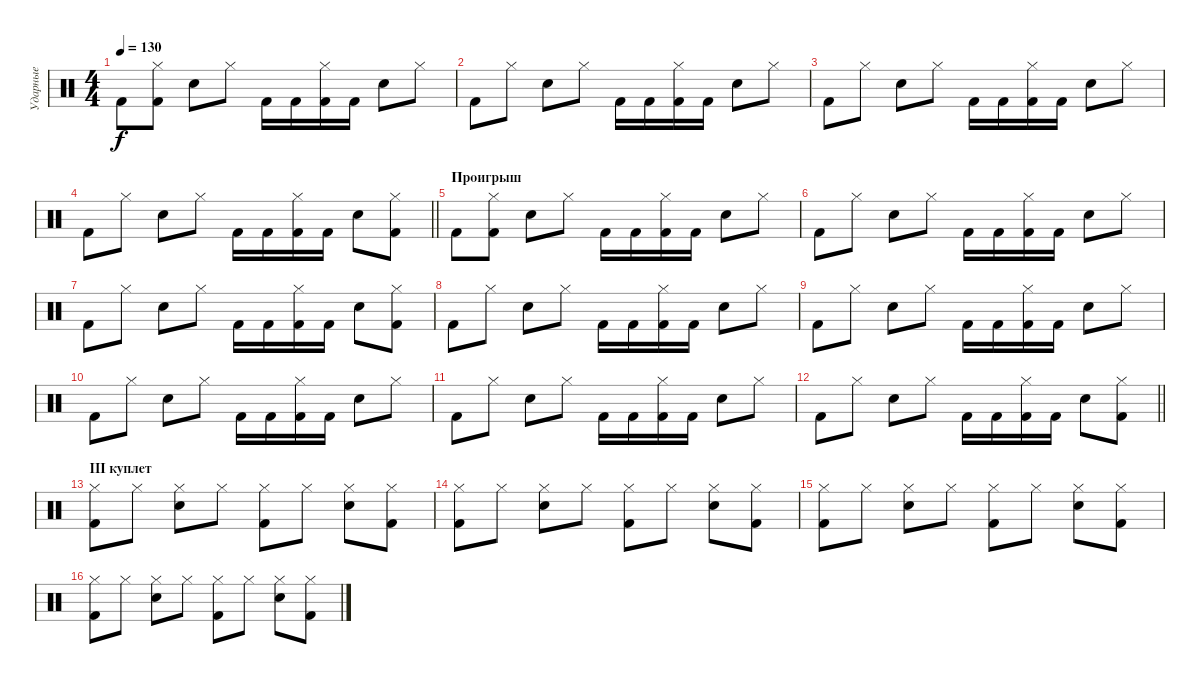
\track ("Ударные" "Ударные") {instrument percussion}
\staff {score}
\articulation defaults
\ts (4 4)
\tempo 130
\clef neutral
\ks c "Kick (hit) 2".8{dy f}
("Hi-Hat (closed)" "Kick (hit) 2").8 "Electric Snare (hit)".8 "Hi-Hat (closed)".8 "Kick (hit) 2".16 "Kick (hit) 2".16 ("Hi-Hat (closed)" "Kick (hit) 2").16 "Kick (hit) 2".16 "Electric Snare (hit)".8 "Hi-Hat (closed)".8 |
"Kick (hit) 2".8 "Hi-Hat (closed)".8 "Electric Snare (hit)".8 "Hi-Hat (closed)".8 "Kick (hit) 2".16 "Kick (hit) 2".16 ("Hi-Hat (closed)" "Kick (hit) 2").16 "Kick (hit) 2".16 "Electric Snare (hit)".8 "Hi-Hat (closed)".8 |
"Kick (hit) 2".8 "Hi-Hat (closed)".8 "Electric Snare (hit)".8 "Hi-Hat (closed)".8 "Kick (hit) 2".16 "Kick (hit) 2".16 ("Hi-Hat (closed)" "Kick (hit) 2").16 "Kick (hit) 2".16 "Electric Snare (hit)".8 "Hi-Hat (closed)".8 |
\barLineRight lightlight "Kick (hit) 2".8 "Hi-Hat (closed)".8 "Electric Snare (hit)".8 "Hi-Hat (closed)".8 "Kick (hit) 2".16 "Kick (hit) 2".16
("Hi-Hat (closed)" "Kick (hit) 2").16 "Kick (hit) 2".16 "Electric Snare (hit)".8 ("Hi-Hat (closed)" "Kick (hit) 2").8 |
\section ("" "Проигрыш")
"Kick (hit) 2".8 ("Hi-Hat (closed)" "Kick (hit) 2").8 "Electric Snare (hit)".8 "Hi-Hat (closed)".8 "Kick (hit) 2".16 "Kick (hit) 2".16 ("Hi-Hat (closed)" "Kick (hit) 2").16 "Kick (hit) 2".16 "Electric Snare (hit)".8 "Hi-Hat (closed)".8 |
"Kick (hit) 2".8 "Hi-Hat (closed)".8 "Electric Snare (hit)".8 "Hi-Hat (closed)".8 "Kick (hit) 2".16 "Kick (hit) 2".16 ("Hi-Hat (closed)" "Kick (hit) 2").16 "Kick (hit) 2".16 "Electric Snare (hit)".8 "Hi-Hat (closed)".8 |
"Kick (hit) 2".8 "Hi-Hat (closed)".8 "Electric Snare (hit)".8 "Hi-Hat (closed)".8 "Kick (hit) 2".16 "Kick (hit) 2".16 ("Hi-Hat (closed)" "Kick (hit) 2").16 "Kick (hit) 2".16 "Electric Snare (hit)".8 ("Hi-Hat (closed)" "Kick (hit) 2").8 |
"Kick (hit) 2".8 "Hi-Hat (closed)".8 "Electric Snare (hit)".8 "Hi-Hat (closed)".8 "Kick (hit) 2".16 "Kick (hit) 2".16 ("Hi-Hat (closed)" "Kick (hit) 2").16 "Kick (hit) 2".16 "Electric Snare (hit)".8 "Hi-Hat (closed)".8 |
"Kick (hit) 2".8 "Hi-Hat (closed)".8 "Electric Snare (hit)".8 "Hi-Hat (closed)".8 "Kick (hit) 2".16 "Kick (hit) 2".16 ("Hi-Hat (closed)" "Kick (hit) 2").16 "Kick (hit) 2".16 "Electric Snare (hit)".8 "Hi-Hat (closed)".8 |
"Kick (hit) 2".8 "Hi-Hat (closed)".8 "Electric Snare (hit)".8 "Hi-Hat (closed)".8 "Kick (hit) 2".16 "Kick (hit) 2".16 ("Hi-Hat (closed)" "Kick (hit) 2").16 "Kick (hit) 2".16 "Electric Snare (hit)".8 "Hi-Hat (closed)".8 |
"Kick (hit) 2".8 "Hi-Hat (closed)".8 "Electric Snare (hit)".8 "Hi-Hat (closed)".8 "Kick (hit) 2".16 "Kick (hit) 2".16 ("Hi-Hat (closed)" "Kick (hit) 2").16 "Kick (hit) 2".16 "Electric Snare (hit)".8 "Hi-Hat (closed)".8 |
\barLineRight lightlight "Kick (hit) 2".8 "Hi-Hat (closed)".8 "Electric Snare (hit)".8 "Hi-Hat (closed)".8 "Kick (hit) 2".16 "Kick (hit) 2".16
("Hi-Hat (closed)" "Kick (hit) 2").16 "Kick (hit) 2".16 "Electric Snare (hit)".8 ("Hi-Hat (closed)" "Kick (hit) 2").8 |
\section ("" "III куплет")
("Hi-Hat (closed)" "Kick (hit) 2").8 "Hi-Hat (closed)".8 ("Hi-Hat (closed)" "Electric Snare (hit)").8 "Hi-Hat (closed)".8 ("Hi-Hat (closed)" "Kick (hit) 2").8 "Hi-Hat (closed)".8 ("Hi-Hat (closed)" "Electric Snare (hit)").8 ("Hi-Hat (closed)" "Kick (hit) 2").8 |
("Hi-Hat (closed)" "Kick (hit) 2").8 "Hi-Hat (closed)".8 ("Hi-Hat (closed)" "Electric Snare (hit)").8 "Hi-Hat (closed)".8 ("Hi-Hat (closed)" "Kick (hit) 2").8 "Hi-Hat (closed)".8 ("Hi-Hat (closed)" "Electric Snare (hit)").8 ("Hi-Hat (closed)" "Kick (hit) 2").8 |
("Hi-Hat (closed)" "Kick (hit) 2").8 "Hi-Hat (closed)".8 ("Hi-Hat (closed)" "Electric Snare (hit)").8 "Hi-Hat (closed)".8 ("Hi-Hat (closed)" "Kick (hit) 2").8 "Hi-Hat (closed)".8 ("Hi-Hat (closed)" "Electric Snare (hit)").8 ("Hi-Hat (closed)" "Kick (hit) 2").8 |
("Hi-Hat (closed)" "Kick (hit) 2").8 "Hi-Hat (closed)".8 ("Hi-Hat (closed)" "Electric Snare (hit)").8 "Hi-Hat (closed)".8 ("Hi-Hat (closed)" "Kick (hit) 2").8 "Hi-Hat (closed)".8 ("Hi-Hat (closed)" "Electric Snare (hit)").8 ("Hi-Hat (closed)" "Kick (hit) 2").8
